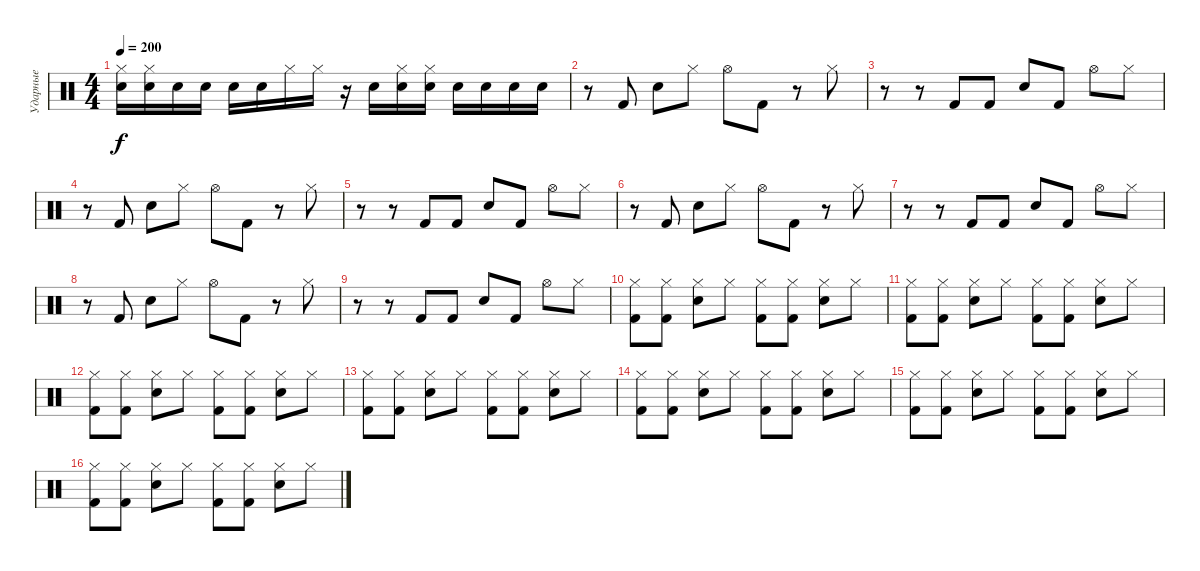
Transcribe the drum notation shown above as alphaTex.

\track ("Ударные" "Ударные") {instrument percussion}
\staff {score}
\articulation defaults
\ts (4 4)
\tempo 200
\clef neutral
\ks c
("Electric Snare (hit)" "Hi-Hat (closed)").16{dy f} ("Electric Snare (hit)" "Hi-Hat (closed)").16 "Electric Snare (hit)".16 "Electric Snare (hit)".16 "Electric Snare (hit)".16 "Electric Snare (hit)".16 "Hi-Hat (closed)".16 "Hi-Hat (closed)".16 r.16 "Electric Snare (hit)".16 ("Electric Snare (hit)" "Hi-Hat (closed)").16 ("Electric Snare (hit)" "Hi-Hat (closed)").16 "Electric Snare (hit)".16 "Electric Snare (hit)".16 "Electric Snare (hit)".16 "Electric Snare (hit)".16 |
r.8 "Kick (hit) 2".8 "Electric Snare (hit)".8 "Hi-Hat (closed)".8 "Hi-Hat (open)".8 "Kick (hit) 2".8 r.8 "Hi-Hat (closed)".8 |
r.8 r.8 "Kick (hit) 2".8 "Kick (hit) 2".8 "Electric Snare (hit)".8 "Kick (hit) 2".8 "Hi-Hat (open)".8 "Hi-Hat (closed)".8 |
r.8 "Kick (hit) 2".8 "Electric Snare (hit)".8 "Hi-Hat (closed)".8 "Hi-Hat (open)".8 "Kick (hit) 2".8 r.8 "Hi-Hat (closed)".8 |
r.8 r.8 "Kick (hit) 2".8 "Kick (hit) 2".8 "Electric Snare (hit)".8 "Kick (hit) 2".8 "Hi-Hat (open)".8 "Hi-Hat (closed)".8 |
r.8 "Kick (hit) 2".8 "Electric Snare (hit)".8 "Hi-Hat (closed)".8 "Hi-Hat (open)".8 "Kick (hit) 2".8 r.8 "Hi-Hat (closed)".8 |
r.8 r.8 "Kick (hit) 2".8 "Kick (hit) 2".8 "Electric Snare (hit)".8 "Kick (hit) 2".8 "Hi-Hat (open)".8 "Hi-Hat (closed)".8 |
r.8 "Kick (hit) 2".8 "Electric Snare (hit)".8 "Hi-Hat (closed)".8 "Hi-Hat (open)".8 "Kick (hit) 2".8 r.8 "Hi-Hat (closed)".8 |
r.8 r.8 "Kick (hit) 2".8 "Kick (hit) 2".8 "Electric Snare (hit)".8 "Kick (hit) 2".8 "Hi-Hat (open)".8 "Hi-Hat (closed)".8 |
("Kick (hit) 2" "Hi-Hat (closed)").8 ("Kick (hit) 2" "Hi-Hat (closed)").8 ("Electric Snare (hit)" "Hi-Hat (closed)").8 "Hi-Hat (closed)".8 ("Kick (hit) 2" "Hi-Hat (closed)").8 ("Kick (hit) 2" "Hi-Hat (closed)").8 ("Electric Snare (hit)" "Hi-Hat (closed)").8 "Hi-Hat (closed)".8 |
("Kick (hit) 2" "Hi-Hat (closed)").8 ("Kick (hit) 2" "Hi-Hat (closed)").8 ("Electric Snare (hit)" "Hi-Hat (closed)").8 "Hi-Hat (closed)".8 ("Kick (hit) 2" "Hi-Hat (closed)").8 ("Kick (hit) 2" "Hi-Hat (closed)").8 ("Electric Snare (hit)" "Hi-Hat (closed)").8 "Hi-Hat (closed)".8 |
("Kick (hit) 2" "Hi-Hat (closed)").8 ("Kick (hit) 2" "Hi-Hat (closed)").8 ("Electric Snare (hit)" "Hi-Hat (closed)").8 "Hi-Hat (closed)".8 ("Kick (hit) 2" "Hi-Hat (closed)").8 ("Kick (hit) 2" "Hi-Hat (closed)").8 ("Electric Snare (hit)" "Hi-Hat (closed)").8 "Hi-Hat (closed)".8 |
("Kick (hit) 2" "Hi-Hat (closed)").8 ("Kick (hit) 2" "Hi-Hat (closed)").8 ("Electric Snare (hit)" "Hi-Hat (closed)").8 "Hi-Hat (closed)".8 ("Kick (hit) 2" "Hi-Hat (closed)").8 ("Kick (hit) 2" "Hi-Hat (closed)").8 ("Electric Snare (hit)" "Hi-Hat (closed)").8 "Hi-Hat (closed)".8 |
("Kick (hit) 2" "Hi-Hat (closed)").8 ("Kick (hit) 2" "Hi-Hat (closed)").8 ("Electric Snare (hit)" "Hi-Hat (closed)").8 "Hi-Hat (closed)".8 ("Kick (hit) 2" "Hi-Hat (closed)").8 ("Kick (hit) 2" "Hi-Hat (closed)").8 ("Electric Snare (hit)" "Hi-Hat (closed)").8 "Hi-Hat (closed)".8 |
("Kick (hit) 2" "Hi-Hat (closed)").8 ("Kick (hit) 2" "Hi-Hat (closed)").8 ("Electric Snare (hit)" "Hi-Hat (closed)").8 "Hi-Hat (closed)".8 ("Kick (hit) 2" "Hi-Hat (closed)").8 ("Kick (hit) 2" "Hi-Hat (closed)").8 ("Electric Snare (hit)" "Hi-Hat (closed)").8 "Hi-Hat (closed)".8 |
("Kick (hit) 2" "Hi-Hat (closed)").8 ("Kick (hit) 2" "Hi-Hat (closed)").8 ("Electric Snare (hit)" "Hi-Hat (closed)").8 "Hi-Hat (closed)".8 ("Kick (hit) 2" "Hi-Hat (closed)").8 ("Kick (hit) 2" "Hi-Hat (closed)").8 ("Electric Snare (hit)" "Hi-Hat (closed)").8 "Hi-Hat (closed)".8
